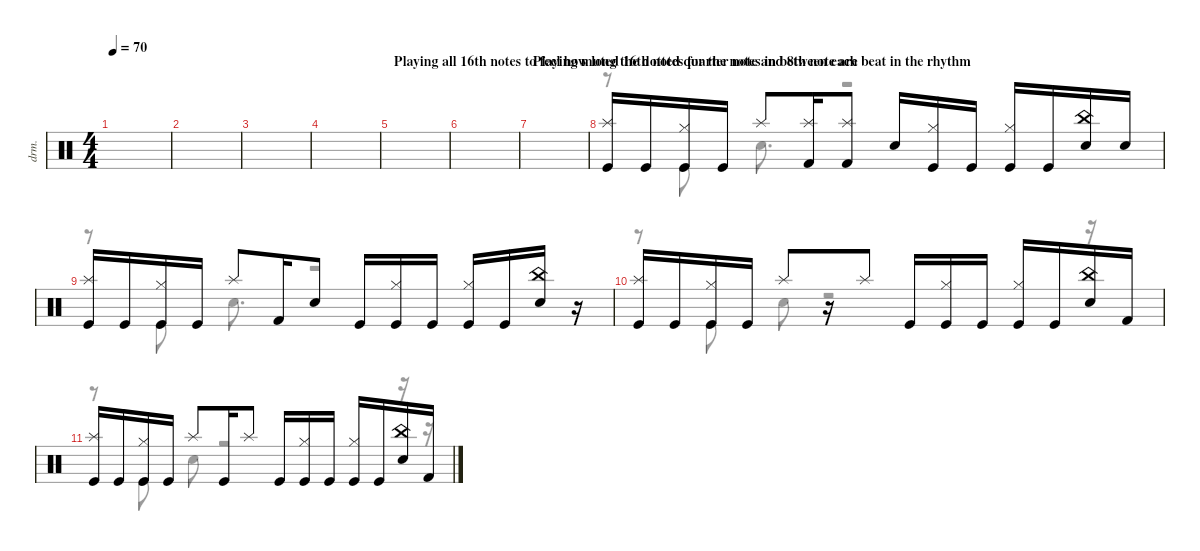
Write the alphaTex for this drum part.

\defaultSystemsLayout 4
\hideDynamics
\bracketExtendMode nobrackets
\track ("Drumkit" "drm.") {instrument percussion}
\staff {score}
\articulation defaults
\voice
\ts (4 4)
\tempo 70
\clef neutral
\ks aminor
|
|
|
|
\section ("" "Playing all 16th notes to feel how long the dotted quarter note and 8th note are")
|
|
\section ("" "Playing muted 16th notes for the notes in between each beat in the rhythm")
|
\section ("" "")
("Kick (hit)" "Splash (hit)").16 "Kick (hit)".16 ("Hi-Hat (closed)" "Kick (hit)").16 "Kick (hit)".16 "Splash (hit)".8 ("Kick (hit) 2" "Splash (hit)").16 ("Kick (hit) 2" "Splash (hit)").8 "Snare (hit) 2".16 ("Kick (hit)" "Hi-Hat (closed)").16 "Kick (hit)".16 ("Kick (hit)" "Hi-Hat (closed)").16 "Kick (hit)".16 ("Snare (hit) 2" "China (hit)").16 "Snare (hit) 2".16 |
("Kick (hit)" "Splash (hit)").16 "Kick (hit)".16 ("Hi-Hat (closed)" "Kick (hit)").16 "Kick (hit)".16 "Splash (hit)".8 "Kick (hit) 2".16 "Snare (hit) 2".8 "Kick (hit)".16 ("Kick (hit)" "Hi-Hat (closed)").16 "Kick (hit)".16 ("Kick (hit)" "Hi-Hat (closed)").16 "Kick (hit)".16 ("Snare (hit) 2" "China (hit)").16 r.16 |
("Kick (hit)" "Splash (hit)").16 "Kick (hit)".16 ("Hi-Hat (closed)" "Kick (hit)").16 "Kick (hit)".16 "Splash (hit)".8 r.16 "Splash (hit)".8 "Kick (hit)".16 ("Kick (hit)" "Hi-Hat (closed)").16 "Kick (hit)".16 ("Kick (hit)" "Hi-Hat (closed)").16 "Kick (hit)".16 ("Snare (hit) 2" "China (hit)").16 "Kick (hit) 2".16 |
("Kick (hit)" "Splash (hit)").16 "Kick (hit)".16 ("Hi-Hat (closed)" "Kick (hit)").16 "Kick (hit)".16 "Splash (hit)".8 "Kick (hit)".16 "Splash (hit)".8 "Kick (hit)".16 ("Kick (hit)" "Hi-Hat (closed)").16 "Kick (hit)".16 ("Kick (hit)" "Hi-Hat (closed)").16 "Kick (hit)".16 ("Snare (hit) 2" "China (hit)").16 "Kick (hit) 2".16
\voice
\clef neutral
\ottava regular
\simile none
\ks aminor
|
|
|
|
|
|
|
r.8 "Kick (hit)".8 "Snare (hit) 2".8{d} r.2 |
r.8 "Kick (hit)".8 "Snare (hit) 2".8{d} r.2 r.16 |
r.8 "Kick (hit)".8 "Snare (hit) 2".8 r.2 r.16 |
r.8 "Kick (hit)".8 "Snare (hit) 2".8 r.2 r.16 r.16
